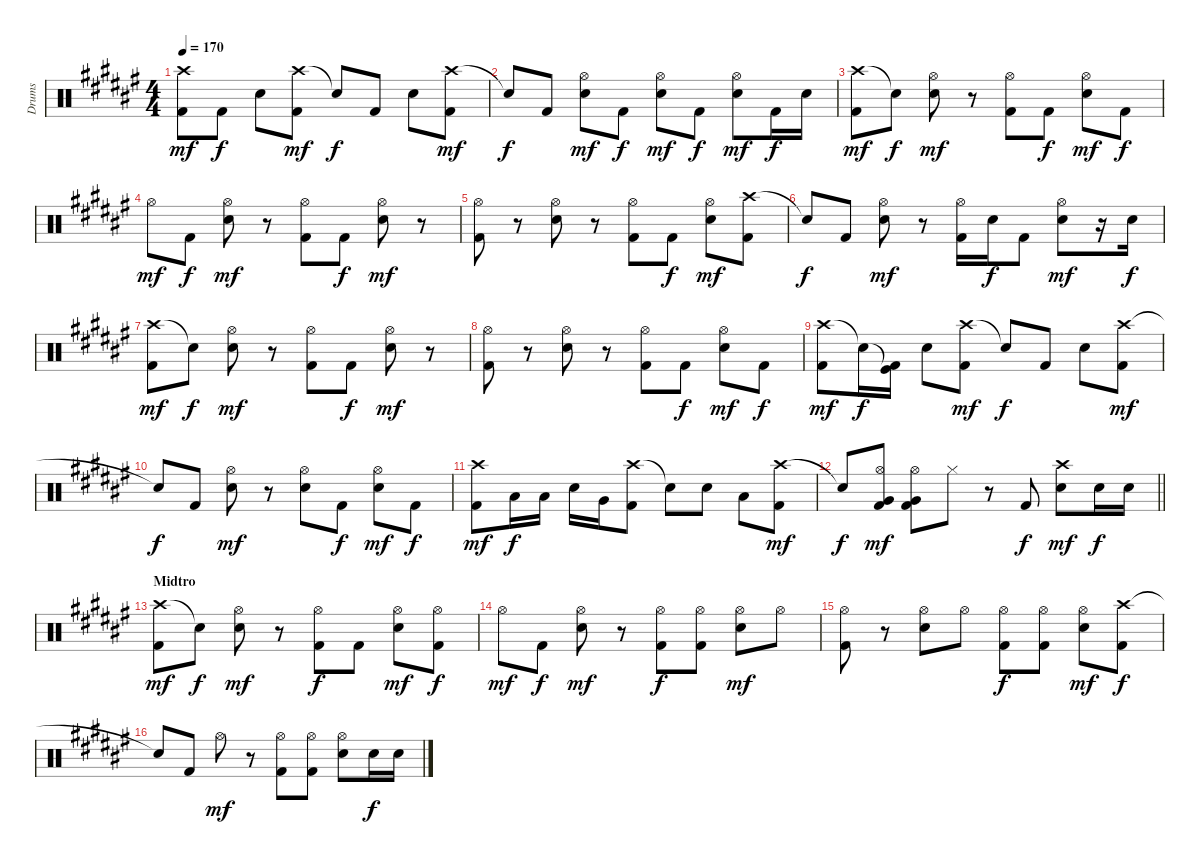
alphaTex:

\track ("Drums" "Drums") {instrument percussion}
\staff {score}
\articulation defaults
\ts (4 4)
\tempo 170
\clef neutral
\ks f#
("Crash high (hit)" "Kick (hit) 2").8{dy mf} "Kick (hit) 2".8{dy f} "Snare (hit) 2".8 ("Crash high (hit)" "Kick (hit) 2").8{dy mf} "Snare (hit)"{t}.8{dy f} "Kick (hit) 2".8 "Snare (hit) 2".8 ("Crash high (hit)" "Kick (hit) 2").8{dy mf} |
"Snare (hit)"{t}.8{dy f} "Kick (hit) 2".8 ("Hi-Hat (open)" "Snare (hit) 2").8{dy mf} "Kick (hit) 2".8{dy f} ("Hi-Hat (open)" "Snare (hit) 2").8{dy mf} "Kick (hit) 2".8{dy f} ("Hi-Hat (open)" "Snare (hit) 2").8{dy mf} "Kick (hit) 2".16{dy f} "Snare (hit) 2".16 |
("Crash high (hit)" "Kick (hit) 2").8{dy mf} "Snare (hit)"{t}.8{dy f} ("Hi-Hat (open)" "Snare (hit) 2").8{dy mf} r.8 ("Hi-Hat (open)" "Kick (hit) 2").8 "Kick (hit) 2".8{dy f} ("Hi-Hat (open)" "Snare (hit) 2").8{dy mf} "Kick (hit) 2".8{dy f} |
"Hi-Hat (open)".8{dy mf} "Kick (hit) 2".8{dy f} ("Hi-Hat (open)" "Snare (hit) 2").8{dy mf} r.8 ("Hi-Hat (open)" "Kick (hit) 2").8 "Kick (hit) 2".8{dy f} ("Hi-Hat (open)" "Snare (hit) 2").8{dy mf} r.8 |
("Hi-Hat (open)" "Kick (hit) 2").8 r.8 ("Hi-Hat (open)" "Snare (hit) 2").8 r.8 ("Hi-Hat (open)" "Kick (hit) 2").8 "Kick (hit) 2".8{dy f} ("Hi-Hat (open)" "Snare (hit) 2").8{dy mf} ("Crash high (hit)" "Kick (hit) 2").8 |
"Snare (hit)"{t}.8{dy f} "Kick (hit) 2".8 ("Hi-Hat (open)" "Snare (hit) 2").8{dy mf} r.8 ("Hi-Hat (open)" "Kick (hit) 2").16 "Snare (hit) 2".16{dy f} "Kick (hit) 2".8 ("Hi-Hat (open)" "Snare (hit) 2").8{dy mf} r.16 "Snare (hit) 2".16{dy f} |
("Crash high (hit)" "Kick (hit) 2").8{dy mf} "Snare (hit)"{t}.8{dy f} ("Hi-Hat (open)" "Snare (hit) 2").8{dy mf} r.8 ("Hi-Hat (open)" "Kick (hit) 2").8 "Kick (hit) 2".8{dy f} ("Hi-Hat (open)" "Snare (hit) 2").8{dy mf} r.8 |
("Hi-Hat (open)" "Kick (hit) 2").8 r.8 ("Hi-Hat (open)" "Snare (hit) 2").8 r.8 ("Hi-Hat (open)" "Kick (hit) 2").8 "Kick (hit) 2".8{dy f} ("Hi-Hat (open)" "Snare (hit) 2").8{dy mf} "Kick (hit) 2".8{dy f} |
("Crash high (hit)" "Kick (hit) 2").8{dy mf} "Snare (hit)"{t}.16{dy f} ("Kick (hit)"{t} "Kick (hit) 2").16 "Snare (hit) 2".8 ("Crash high (hit)" "Kick (hit) 2").8{dy mf} "Snare (hit)"{t}.8{dy f} "Kick (hit) 2".8 "Snare (hit) 2".8 ("Crash high (hit)" "Kick (hit) 2").8{dy mf} |
"Snare (hit)"{t}.8{dy f} "Kick (hit) 2".8 ("Hi-Hat (open)" "Snare (hit) 2").8{dy mf} r.8 ("Hi-Hat (open)" "Snare (hit) 2").8 "Kick (hit) 2".8{dy f} ("Hi-Hat (open)" "Snare (hit) 2").8{dy mf} "Kick (hit) 2".8{dy f} |
("Crash high (hit)" "Kick (hit) 2").8{dy mf} "Low Tom (hit)".16{dy f} "Low Tom (hit)".16 "Snare (hit) 2".16 "Very Low Tom (hit)".16 ("Crash high (hit)" "Kick (hit) 2").8 "Snare (hit)"{t}.8 "Snare (hit) 2".8 "Low Tom (hit)".8 ("Crash high (hit)" "Kick (hit) 2").8{dy mf} |
\barLineRight lightlight "Snare (hit)"{t}.8{dy f}
("Hi-Hat (open)" "Very Low Tom (hit)" "Kick (hit) 2").8{dy mf} ("Hi-Hat (open)" "Very Low Tom (hit)" "Kick (hit) 2").8 "Hi-Hat (closed)".8 r.8 "Kick (hit) 2".8{dy f} ("Crash high (hit)" "Snare (hit) 2").8{dy mf} "Snare (hit) 2".16{dy f} "Snare (hit) 2".16 |
\section ("" "Midtro")
("Crash high (hit)" "Kick (hit) 2").8{dy mf} "Snare (hit)"{t}.8{dy f} ("Hi-Hat (open)" "Snare (hit) 2").8{dy mf} r.8 ("Hi-Hat (open)" "Kick (hit) 2").8{dy f} "Kick (hit) 2".8 ("Hi-Hat (open)" "Snare (hit) 2").8{dy mf} ("Hi-Hat (open)" "Kick (hit) 2").8{dy f} |
"Hi-Hat (open)".8{dy mf} "Kick (hit) 2".8{dy f} ("Hi-Hat (open)" "Snare (hit) 2").8{dy mf} r.8 ("Hi-Hat (open)" "Kick (hit) 2").8{dy f} ("Hi-Hat (open)" "Kick (hit) 2").8 ("Hi-Hat (open)" "Snare (hit) 2").8{dy mf} "Hi-Hat (open)".8 |
("Hi-Hat (open)" "Kick (hit) 2").8 r.8 ("Hi-Hat (open)" "Snare (hit) 2").8 "Hi-Hat (open)".8 ("Hi-Hat (open)" "Kick (hit) 2").8{dy f} ("Hi-Hat (open)" "Kick (hit) 2").8 ("Hi-Hat (open)" "Snare (hit) 2").8{dy mf} ("Crash high (hit)" "Kick (hit) 2").8{dy f} |
"Snare (hit)"{t}.8 "Kick (hit) 2".8 "Hi-Hat (open)".8{dy mf} r.8 ("Hi-Hat (open)" "Kick (hit) 2").8 ("Hi-Hat (open)" "Kick (hit) 2").8 ("Hi-Hat (open)" "Snare (hit) 2").8 "Snare (hit) 2".16{dy f} "Snare (hit) 2".16
